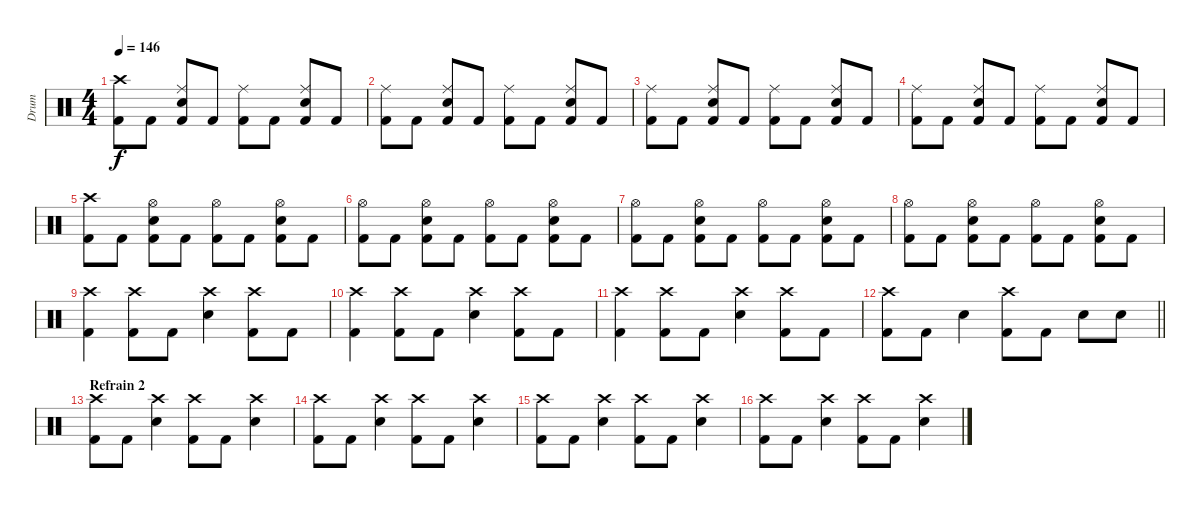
\track ("Drum" "Drum") {instrument percussion}
\staff {score}
\articulation defaults
\ts (4 4)
\tempo 146
\clef neutral
\ks c
("Crash high (hit)" "Kick (hit) 2").8{dy f} "Kick (hit) 2".8 ("Ride (middle)" "Electric Snare (hit)" "Kick (hit) 2").8 "Kick (hit) 2".8 ("Ride (middle)" "Kick (hit) 2").8 "Kick (hit) 2".8 ("Ride (middle)" "Electric Snare (hit)" "Kick (hit) 2").8 "Kick (hit) 2".8 |
("Ride (middle)" "Kick (hit) 2").8 "Kick (hit) 2".8 ("Ride (middle)" "Electric Snare (hit)" "Kick (hit) 2").8 "Kick (hit) 2".8 ("Ride (middle)" "Kick (hit) 2").8 "Kick (hit) 2".8 ("Ride (middle)" "Electric Snare (hit)" "Kick (hit) 2").8 "Kick (hit) 2".8 |
("Ride (middle)" "Kick (hit) 2").8 "Kick (hit) 2".8 ("Ride (middle)" "Electric Snare (hit)" "Kick (hit) 2").8 "Kick (hit) 2".8 ("Ride (middle)" "Kick (hit) 2").8 "Kick (hit) 2".8 ("Ride (middle)" "Electric Snare (hit)" "Kick (hit) 2").8 "Kick (hit) 2".8 |
("Ride (middle)" "Kick (hit) 2").8 "Kick (hit) 2".8 ("Ride (middle)" "Electric Snare (hit)" "Kick (hit) 2").8 "Kick (hit) 2".8 ("Ride (middle)" "Kick (hit) 2").8 "Kick (hit) 2".8 ("Ride (middle)" "Electric Snare (hit)" "Kick (hit) 2").8 "Kick (hit) 2".8 |
("Crash high (hit)" "Kick (hit) 2").8 "Kick (hit) 2".8 ("Hi-Hat (open)" "Electric Snare (hit)" "Kick (hit) 2").8 "Kick (hit) 2".8 ("Hi-Hat (open)" "Kick (hit) 2").8 "Kick (hit) 2".8 ("Hi-Hat (open)" "Electric Snare (hit)" "Kick (hit) 2").8 "Kick (hit) 2".8 |
("Hi-Hat (open)" "Kick (hit) 2").8 "Kick (hit) 2".8 ("Hi-Hat (open)" "Electric Snare (hit)" "Kick (hit) 2").8 "Kick (hit) 2".8 ("Hi-Hat (open)" "Kick (hit) 2").8 "Kick (hit) 2".8 ("Hi-Hat (open)" "Electric Snare (hit)" "Kick (hit) 2").8 "Kick (hit) 2".8 |
("Hi-Hat (open)" "Kick (hit) 2").8 "Kick (hit) 2".8 ("Hi-Hat (open)" "Electric Snare (hit)" "Kick (hit) 2").8 "Kick (hit) 2".8 ("Hi-Hat (open)" "Kick (hit) 2").8 "Kick (hit) 2".8 ("Hi-Hat (open)" "Electric Snare (hit)" "Kick (hit) 2").8 "Kick (hit) 2".8 |
("Hi-Hat (open)" "Kick (hit) 2").8 "Kick (hit) 2".8 ("Hi-Hat (open)" "Electric Snare (hit)" "Kick (hit) 2").8 "Kick (hit) 2".8 ("Hi-Hat (open)" "Kick (hit) 2").8 "Kick (hit) 2".8 ("Hi-Hat (open)" "Electric Snare (hit)" "Kick (hit) 2").8 "Kick (hit) 2".8 |
("Crash high (hit)" "Kick (hit) 2").4 ("Crash high (hit)" "Kick (hit) 2").8 "Kick (hit) 2".8 ("Crash high (hit)" "Electric Snare (hit)").4 ("Crash high (hit)" "Kick (hit) 2").8 "Kick (hit) 2".8 |
("Crash high (hit)" "Kick (hit) 2").4 ("Crash high (hit)" "Kick (hit) 2").8 "Kick (hit) 2".8 ("Crash high (hit)" "Electric Snare (hit)").4 ("Crash high (hit)" "Kick (hit) 2").8 "Kick (hit) 2".8 |
("Crash high (hit)" "Kick (hit) 2").4 ("Crash high (hit)" "Kick (hit) 2").8 "Kick (hit) 2".8 ("Crash high (hit)" "Electric Snare (hit)").4 ("Crash high (hit)" "Kick (hit) 2").8 "Kick (hit) 2".8 |
\barLineRight lightlight
("Crash high (hit)" "Kick (hit) 2").8 "Kick (hit) 2".8 "Electric Snare (hit)".4 ("Crash high (hit)" "Kick (hit) 2").8 "Kick (hit) 2".8 "Electric Snare (hit)".8 "Electric Snare (hit)".8 |
\section ("" "Refrain 2")
("Crash high (hit)" "Kick (hit) 2").8 "Kick (hit) 2".8 ("Crash high (hit)" "Electric Snare (hit)").4 ("Crash high (hit)" "Kick (hit) 2").8 "Kick (hit) 2".8 ("Crash high (hit)" "Electric Snare (hit)").4 |
("Crash high (hit)" "Kick (hit) 2").8 "Kick (hit) 2".8 ("Crash high (hit)" "Electric Snare (hit)").4 ("Crash high (hit)" "Kick (hit) 2").8 "Kick (hit) 2".8 ("Crash high (hit)" "Electric Snare (hit)").4 |
("Crash high (hit)" "Kick (hit) 2").8 "Kick (hit) 2".8 ("Crash high (hit)" "Electric Snare (hit)").4 ("Crash high (hit)" "Kick (hit) 2").8 "Kick (hit) 2".8 ("Crash high (hit)" "Electric Snare (hit)").4 |
("Crash high (hit)" "Kick (hit) 2").8 "Kick (hit) 2".8 ("Crash high (hit)" "Electric Snare (hit)").4 ("Crash high (hit)" "Kick (hit) 2").8 "Kick (hit) 2".8 ("Crash high (hit)" "Electric Snare (hit)").4
